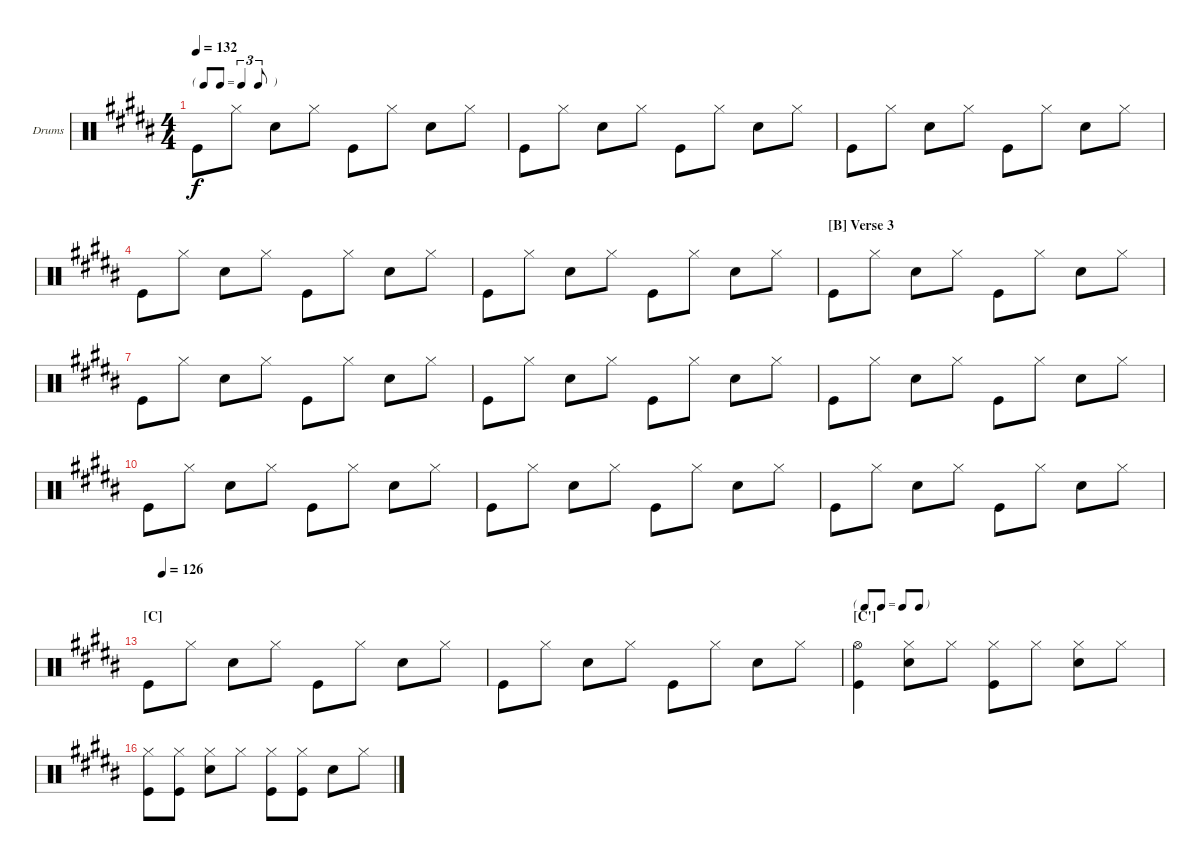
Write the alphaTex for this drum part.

\bracketExtendMode nobrackets
\firstSystemTrackNameOrientation horizontal
\otherSystemsTrackNameOrientation horizontal
\defaultBarNumberDisplay FirstOfSystem
\track ("Drumkit" "Drums") {instrument percussion}
\staff {score}
\articulation defaults
\ts (4 4)
\tf triplet8th
\tempo 132
\clef neutral
\ks b "Kick (hit)".8{dy f} "Hi-Hat (closed)".8 "Snare (hit) 2".8 "Hi-Hat (closed)".8 "Kick (hit)".8 "Hi-Hat (closed)".8 "Snare (hit) 2".8 "Hi-Hat (closed)".8
|
"Kick (hit)".8 "Hi-Hat (closed)".8 "Snare (hit) 2".8 "Hi-Hat (closed)".8 "Kick (hit)".8 "Hi-Hat (closed)".8 "Snare (hit) 2".8 "Hi-Hat (closed)".8 |
"Kick (hit)".8 "Hi-Hat (closed)".8 "Snare (hit) 2".8 "Hi-Hat (closed)".8 "Kick (hit)".8 "Hi-Hat (closed)".8 "Snare (hit) 2".8 "Hi-Hat (closed)".8 |
"Kick (hit)".8 "Hi-Hat (closed)".8 "Snare (hit) 2".8 "Hi-Hat (closed)".8 "Kick (hit)".8 "Hi-Hat (closed)".8 "Snare (hit) 2".8 "Hi-Hat (closed)".8 |
"Kick (hit)".8 "Hi-Hat (closed)".8 "Snare (hit) 2".8 "Hi-Hat (closed)".8 "Kick (hit)".8 "Hi-Hat (closed)".8 "Snare (hit) 2".8 "Hi-Hat (closed)".8 |
\section ("B" "Verse 3")
"Kick (hit)".8 "Hi-Hat (closed)".8 "Snare (hit) 2".8 "Hi-Hat (closed)".8 "Kick (hit)".8 "Hi-Hat (closed)".8 "Snare (hit) 2".8 "Hi-Hat (closed)".8 |
"Kick (hit)".8 "Hi-Hat (closed)".8 "Snare (hit) 2".8 "Hi-Hat (closed)".8 "Kick (hit)".8 "Hi-Hat (closed)".8 "Snare (hit) 2".8 "Hi-Hat (closed)".8 |
"Kick (hit)".8 "Hi-Hat (closed)".8 "Snare (hit) 2".8 "Hi-Hat (closed)".8 "Kick (hit)".8 "Hi-Hat (closed)".8 "Snare (hit) 2".8 "Hi-Hat (closed)".8 |
"Kick (hit)".8 "Hi-Hat (closed)".8 "Snare (hit) 2".8 "Hi-Hat (closed)".8 "Kick (hit)".8 "Hi-Hat (closed)".8 "Snare (hit) 2".8 "Hi-Hat (closed)".8 |
\scale
0.344485 "Kick (hit)".8 "Hi-Hat (closed)".8 "Snare (hit) 2".8 "Hi-Hat (closed)".8 "Kick (hit)".8 "Hi-Hat (closed)".8 "Snare (hit) 2".8 "Hi-Hat (closed)".8 |
\scale
0.274911 "Kick (hit)".8 "Hi-Hat (closed)".8 "Snare (hit) 2".8 "Hi-Hat (closed)".8 "Kick (hit)".8 "Hi-Hat (closed)".8 "Snare (hit) 2".8 "Hi-Hat (closed)".8 |
\scale
0.380566 "Kick (hit)".8 "Hi-Hat (closed)".8 "Snare (hit) 2".8 "Hi-Hat (closed)".8 "Kick (hit)".8 "Hi-Hat (closed)".8 "Snare (hit) 2".8 "Hi-Hat (closed)".8 |
\section ("C" "")
\scale
0.270677
\tempo (126 0.04375)
"Kick (hit)".8 "Hi-Hat (closed)".8 "Snare (hit) 2".8 "Hi-Hat (closed)".8 "Kick (hit)".8 "Hi-Hat (closed)".8 "Snare (hit) 2".8 "Hi-Hat (closed)".8 |
\scale
0.261075 "Kick (hit)".8 "Hi-Hat (closed)".8 "Snare (hit) 2".8 "Hi-Hat (closed)".8 "Kick (hit)".8 "Hi-Hat (closed)".8 "Snare (hit) 2".8 "Hi-Hat (closed)".8 |
\tf none
\section ("C'" "")
\scale
0.197645 ("Hi-Hat (open)" "Kick (hit)").4 ("Hi-Hat (closed)" "Snare (hit) 2").8 "Hi-Hat (closed)".8 ("Hi-Hat (closed)" "Kick (hit)").8 "Hi-Hat (closed)".8 ("Hi-Hat (closed)" "Snare (hit) 2").8 "Hi-Hat (closed)".8 |
\scale
0.270677 ("Hi-Hat (closed)" "Kick (hit)").8 ("Hi-Hat (closed)" "Kick (hit)").8 ("Hi-Hat (closed)" "Snare (hit) 2").8 "Hi-Hat (closed)".8 ("Hi-Hat (closed)" "Kick (hit)").8 ("Hi-Hat (closed)" "Kick (hit)").8 "Snare (hit) 2".8 "Hi-Hat (closed)".8
